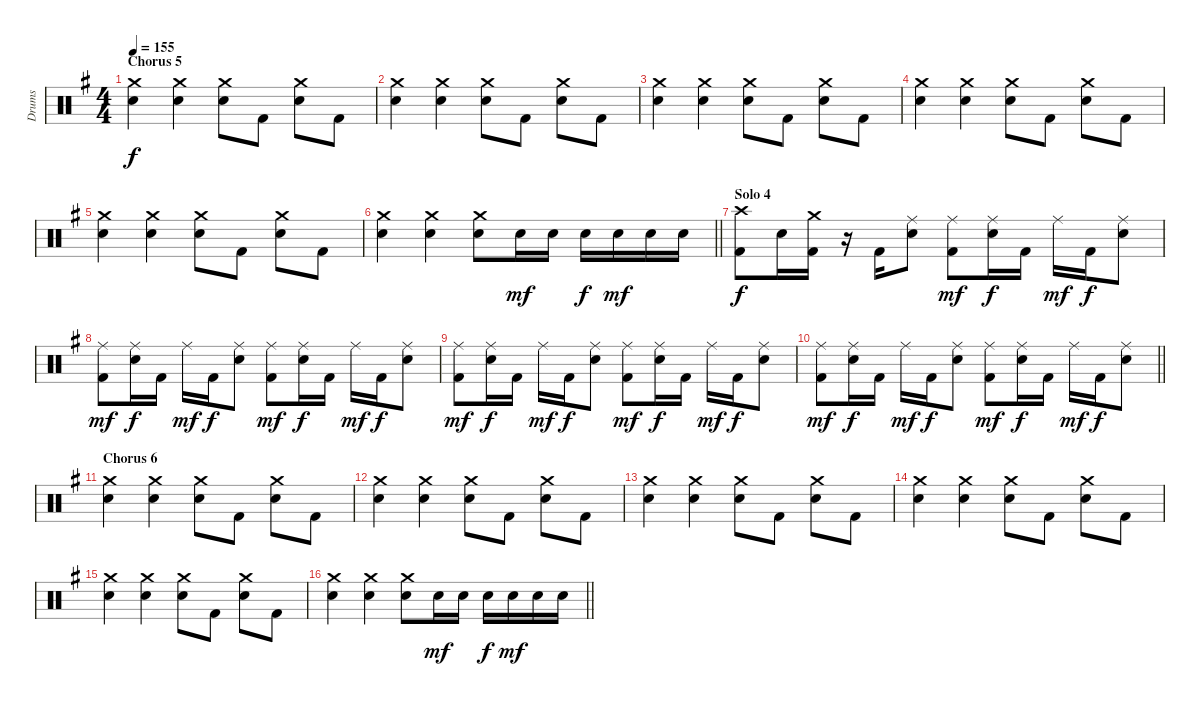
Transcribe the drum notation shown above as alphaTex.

\track ("Drums" "Drums") {instrument percussion}
\staff {score}
\articulation defaults
\ts (4 4)
\section ("" "Chorus 5")
\tempo 155
\clef neutral
\ks g
("Crash medium (hit)" "Electric Snare (hit)").4{dy f} ("Crash medium (hit)" "Electric Snare (hit)").4 ("Crash medium (hit)" "Electric Snare (hit)").8 "Kick (hit) 2".8 ("Crash medium (hit)" "Electric Snare (hit)").8 "Kick (hit) 2".8 |
("Crash medium (hit)" "Electric Snare (hit)").4 ("Crash medium (hit)" "Electric Snare (hit)").4 ("Crash medium (hit)" "Electric Snare (hit)").8 "Kick (hit) 2".8 ("Crash medium (hit)" "Electric Snare (hit)").8 "Kick (hit) 2".8 |
("Crash medium (hit)" "Electric Snare (hit)").4 ("Crash medium (hit)" "Electric Snare (hit)").4 ("Crash medium (hit)" "Electric Snare (hit)").8 "Kick (hit) 2".8 ("Crash medium (hit)" "Electric Snare (hit)").8 "Kick (hit) 2".8 |
("Crash medium (hit)" "Electric Snare (hit)").4 ("Crash medium (hit)" "Electric Snare (hit)").4 ("Crash medium (hit)" "Electric Snare (hit)").8 "Kick (hit) 2".8 ("Crash medium (hit)" "Electric Snare (hit)").8 "Kick (hit) 2".8 |
("Crash medium (hit)" "Electric Snare (hit)").4 ("Crash medium (hit)" "Electric Snare (hit)").4 ("Crash medium (hit)" "Electric Snare (hit)").8 "Kick (hit) 2".8 ("Crash medium (hit)" "Electric Snare (hit)").8 "Kick (hit) 2".8 |
\barLineRight lightlight
("Crash medium (hit)" "Electric Snare (hit)").4 ("Crash medium (hit)" "Electric Snare (hit)").4 ("Crash medium (hit)" "Electric Snare (hit)").8 "Electric Snare (hit)".16{dy mf} "Electric Snare (hit)".16 "Electric Snare (hit)".16{dy f} "Electric Snare (hit)".16{dy mf} "Electric Snare (hit)".16 "Electric Snare (hit)".16 |
\section ("" "Solo 4")
("Crash high (hit)" "Kick (hit) 2").8{dy f} "Electric Snare (hit)".16 ("Crash medium (hit)" "Kick (hit) 2").16 r.16 "Kick (hit) 2".16 ("Ride (middle)" "Electric Snare (hit)").8 ("Ride (middle)" "Kick (hit) 2").8{dy mf} ("Ride (middle)" "Electric Snare (hit)").16{dy f} "Kick (hit) 2".16 "Ride (middle)".16{dy mf} "Kick (hit) 2".16{dy f} ("Ride (middle)" "Electric Snare (hit)").8 |
("Ride (middle)" "Kick (hit) 2").8{dy mf} ("Ride (middle)" "Electric Snare (hit)").16{dy f} "Kick (hit) 2".16 "Ride (middle)".16{dy mf} "Kick (hit) 2".16{dy f} ("Ride (middle)" "Electric Snare (hit)").8 ("Ride (middle)" "Kick (hit) 2").8{dy mf} ("Ride (middle)" "Electric Snare (hit)").16{dy f} "Kick (hit) 2".16 "Ride (middle)".16{dy mf} "Kick (hit) 2".16{dy f} ("Ride (middle)" "Electric Snare (hit)").8 |
("Ride (middle)" "Kick (hit) 2").8{dy mf} ("Ride (middle)" "Electric Snare (hit)").16{dy f} "Kick (hit) 2".16 "Ride (middle)".16{dy mf} "Kick (hit) 2".16{dy f} ("Ride (middle)" "Electric Snare (hit)").8 ("Ride (middle)" "Kick (hit) 2").8{dy mf} ("Ride (middle)" "Electric Snare (hit)").16{dy f} "Kick (hit) 2".16 "Ride (middle)".16{dy mf} "Kick (hit) 2".16{dy f} ("Ride (middle)" "Electric Snare (hit)").8 |
\barLineRight lightlight
("Ride (middle)" "Kick (hit) 2").8{dy mf} ("Ride (middle)" "Electric Snare (hit)").16{dy f} "Kick (hit) 2".16 "Ride (middle)".16{dy mf} "Kick (hit) 2".16{dy f} ("Ride (middle)" "Electric Snare (hit)").8 ("Ride (middle)" "Kick (hit) 2").8{dy mf} ("Ride (middle)" "Electric Snare (hit)").16{dy f} "Kick (hit) 2".16 "Ride (middle)".16{dy mf} "Kick (hit) 2".16{dy f} ("Ride (middle)" "Electric Snare (hit)").8 |
\section ("" "Chorus 6")
("Crash medium (hit)" "Electric Snare (hit)").4 ("Crash medium (hit)" "Electric Snare (hit)").4 ("Crash medium (hit)" "Electric Snare (hit)").8 "Kick (hit) 2".8 ("Crash medium (hit)" "Electric Snare (hit)").8 "Kick (hit) 2".8 |
("Crash medium (hit)" "Electric Snare (hit)").4 ("Crash medium (hit)" "Electric Snare (hit)").4 ("Crash medium (hit)" "Electric Snare (hit)").8 "Kick (hit) 2".8 ("Crash medium (hit)" "Electric Snare (hit)").8 "Kick (hit) 2".8 |
("Crash medium (hit)" "Electric Snare (hit)").4 ("Crash medium (hit)" "Electric Snare (hit)").4 ("Crash medium (hit)" "Electric Snare (hit)").8 "Kick (hit) 2".8 ("Crash medium (hit)" "Electric Snare (hit)").8 "Kick (hit) 2".8 |
("Crash medium (hit)" "Electric Snare (hit)").4 ("Crash medium (hit)" "Electric Snare (hit)").4 ("Crash medium (hit)" "Electric Snare (hit)").8 "Kick (hit) 2".8 ("Crash medium (hit)" "Electric Snare (hit)").8 "Kick (hit) 2".8 |
("Crash medium (hit)" "Electric Snare (hit)").4 ("Crash medium (hit)" "Electric Snare (hit)").4 ("Crash medium (hit)" "Electric Snare (hit)").8 "Kick (hit) 2".8 ("Crash medium (hit)" "Electric Snare (hit)").8 "Kick (hit) 2".8 |
\barLineRight lightlight
("Crash medium (hit)" "Electric Snare (hit)").4 ("Crash medium (hit)" "Electric Snare (hit)").4 ("Crash medium (hit)" "Electric Snare (hit)").8 "Electric Snare (hit)".16{dy mf} "Electric Snare (hit)".16 "Electric Snare (hit)".16{dy f} "Electric Snare (hit)".16{dy mf} "Electric Snare (hit)".16 "Electric Snare (hit)".16
